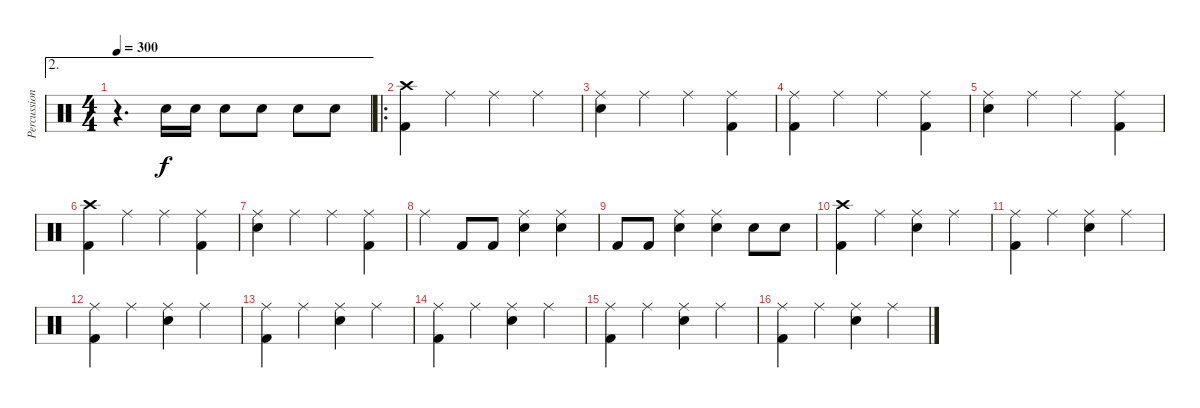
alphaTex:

\track ("Percussion" "Percussion") {instrument percussion}
\staff {score}
\articulation defaults
\ae 2
\ts (4 4)
\tempo 300
\clef neutral
\ks c
r.4{d dy f} "Snare (hit) 2".16 "Snare (hit) 2".16 "Snare (hit) 2".8 "Snare (hit) 2".8 "Snare (hit) 2".8 "Snare (hit) 2".8 |
\ro
("Crash high (hit)" "Kick (hit) 2").4 "Ride (middle)".4 "Ride (middle)".4 "Ride (middle)".4 |
("Ride (middle)" "Snare (hit) 2").4 "Ride (middle)".4 "Ride (middle)".4 ("Ride (middle)" "Kick (hit) 2").4 |
("Ride (middle)" "Kick (hit) 2").4 "Ride (middle)".4 "Ride (middle)".4 ("Ride (middle)" "Kick (hit) 2").4 |
("Ride (middle)" "Snare (hit) 2").4 "Ride (middle)".4 "Ride (middle)".4 ("Ride (middle)" "Kick (hit) 2").4 |
("Crash high (hit)" "Kick (hit) 2").4 "Ride (middle)".4 "Ride (middle)".4 ("Ride (middle)" "Kick (hit) 2").4 |
("Ride (middle)" "Snare (hit) 2").4 "Ride (middle)".4 "Ride (middle)".4 ("Ride (middle)" "Kick (hit) 2").4 |
"Ride (middle)".4 "Kick (hit) 2".8 "Kick (hit) 2".8 ("Ride (middle)" "Snare (hit) 2").4 ("Ride (middle)" "Snare (hit) 2").4 |
"Kick (hit) 2".8 "Kick (hit) 2".8 ("Ride (middle)" "Snare (hit) 2").4 ("Ride (middle)" "Snare (hit) 2").4 "Snare (hit) 2".8 "Snare (hit) 2".8 |
("Crash high (hit)" "Kick (hit) 2").4 "Ride (middle)".4 ("Ride (middle)" "Snare (hit) 2").4 "Ride (middle)".4 |
("Ride (middle)" "Kick (hit) 2").4 "Ride (middle)".4 ("Ride (middle)" "Snare (hit) 2").4 "Ride (middle)".4 |
("Ride (middle)" "Kick (hit) 2").4 "Ride (middle)".4 ("Ride (middle)" "Snare (hit) 2").4 "Ride (middle)".4 |
("Ride (middle)" "Kick (hit) 2").4 "Ride (middle)".4 ("Ride (middle)" "Snare (hit) 2").4 "Ride (middle)".4 |
("Ride (middle)" "Kick (hit) 2").4 "Ride (middle)".4 ("Ride (middle)" "Snare (hit) 2").4 "Ride (middle)".4 |
("Ride (middle)" "Kick (hit) 2").4 "Ride (middle)".4 ("Ride (middle)" "Snare (hit) 2").4 "Ride (middle)".4 |
("Ride (middle)" "Kick (hit) 2").4 "Ride (middle)".4 ("Ride (middle)" "Snare (hit) 2").4 "Ride (middle)".4
